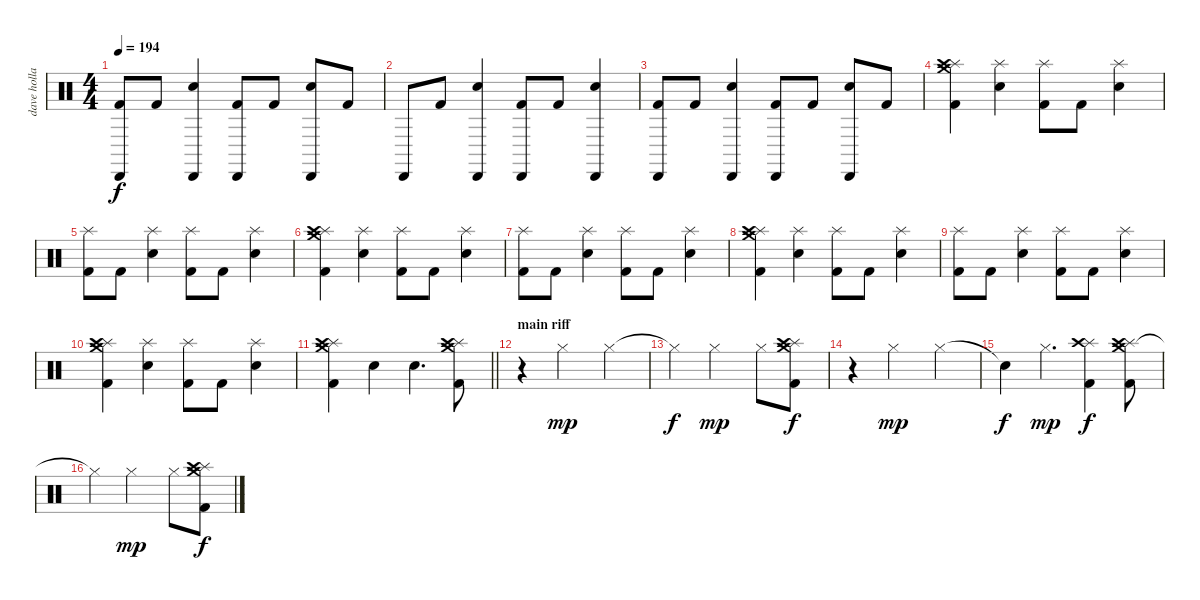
\track ("dave holland" "dave holla") {instrument percussion}
\staff {score}
\articulation defaults
\ts (4 4)
\tempo 194
\clef neutral
\ks c
("Cabasa (hit)" "Kick (hit) 2").8{dy f} "Kick (hit) 2".8 ("Cabasa (hit)" "Electric Snare (hit)").4 ("Cabasa (hit)" "Kick (hit) 2").8 "Kick (hit) 2".8 ("Cabasa (hit)" "Electric Snare (hit)").8 "Kick (hit) 2".8 |
"Cabasa (hit)".8 "Kick (hit) 2".8 ("Cabasa (hit)" "Electric Snare (hit)").4 ("Cabasa (hit)" "Kick (hit) 2").8 "Kick (hit) 2".8 ("Cabasa (hit)" "Electric Snare (hit)").4 |
("Cabasa (hit)" "Kick (hit) 2").8 "Kick (hit) 2".8 ("Cabasa (hit)" "Electric Snare (hit)").4 ("Cabasa (hit)" "Kick (hit) 2").8 "Kick (hit) 2".8 ("Cabasa (hit)" "Electric Snare (hit)").8 "Kick (hit) 2".8 |
("Crash medium (hit)" "Splash (hit)" "Crash high (hit)" "Kick (hit) 2").4 ("Splash (hit)" "Electric Snare (hit)").4 ("Splash (hit)" "Kick (hit) 2").8 "Kick (hit) 2".8 ("Splash (hit)" "Electric Snare (hit)").4 |
("Splash (hit)" "Kick (hit) 2").8 "Kick (hit) 2".8 ("Splash (hit)" "Electric Snare (hit)").4 ("Splash (hit)" "Kick (hit) 2").8 "Kick (hit) 2".8 ("Splash (hit)" "Electric Snare (hit)").4 |
("Crash medium (hit)" "Splash (hit)" "Crash high (hit)" "Kick (hit) 2").4 ("Splash (hit)" "Electric Snare (hit)").4 ("Splash (hit)" "Kick (hit) 2").8 "Kick (hit) 2".8 ("Splash (hit)" "Electric Snare (hit)").4 |
("Splash (hit)" "Kick (hit) 2").8 "Kick (hit) 2".8 ("Splash (hit)" "Electric Snare (hit)").4 ("Splash (hit)" "Kick (hit) 2").8 "Kick (hit) 2".8 ("Splash (hit)" "Electric Snare (hit)").4 |
("Crash medium (hit)" "Splash (hit)" "Crash high (hit)" "Kick (hit) 2").4 ("Splash (hit)" "Electric Snare (hit)").4 ("Splash (hit)" "Kick (hit) 2").8 "Kick (hit) 2".8 ("Splash (hit)" "Electric Snare (hit)").4 |
("Splash (hit)" "Kick (hit) 2").8 "Kick (hit) 2".8 ("Splash (hit)" "Electric Snare (hit)").4 ("Splash (hit)" "Kick (hit) 2").8 "Kick (hit) 2".8 ("Splash (hit)" "Electric Snare (hit)").4 |
("Crash medium (hit)" "Splash (hit)" "Crash high (hit)" "Kick (hit) 2").4 ("Splash (hit)" "Electric Snare (hit)").4 ("Splash (hit)" "Kick (hit) 2").8 "Kick (hit) 2".8 ("Splash (hit)" "Electric Snare (hit)").4 |
\barLineRight lightlight
("Crash medium (hit)" "Splash (hit)" "Crash high (hit)" "Kick (hit) 2").4 "Electric Snare (hit)".4 "Electric Snare (hit)".4{d} ("Crash medium (hit)" "Splash (hit)" "Crash high (hit)" "Kick (hit) 2").8 |
\section ("" "main riff")
r.4 "Hi-Hat (closed)".2{dy mp} "Hi-Hat (closed)".4 |
"Hi-Hat (closed)"{t}.4{dy f} "Hi-Hat (closed)".2{dy mp} "Hi-Hat (closed)".8 ("Crash medium (hit)" "Splash (hit)" "Crash high (hit)" "Kick (hit) 2").8{dy f} |
r.4 "Hi-Hat (closed)".2{dy mp} "Hi-Hat (closed)".4 |
"Snare (hit)"{t}.4{dy f} "Hi-Hat (closed)".4{d dy mp} ("Splash (hit)" "Crash high (hit)" "Kick (hit) 2").4{dy f} ("Crash medium (hit)" "Splash (hit)" "Crash high (hit)" "Kick (hit) 2").8 |
"Hi-Hat (closed)"{t}.4 "Hi-Hat (closed)".2{dy mp} "Hi-Hat (closed)".8 ("Crash medium (hit)" "Splash (hit)" "Crash high (hit)" "Kick (hit) 2").8{dy f}
